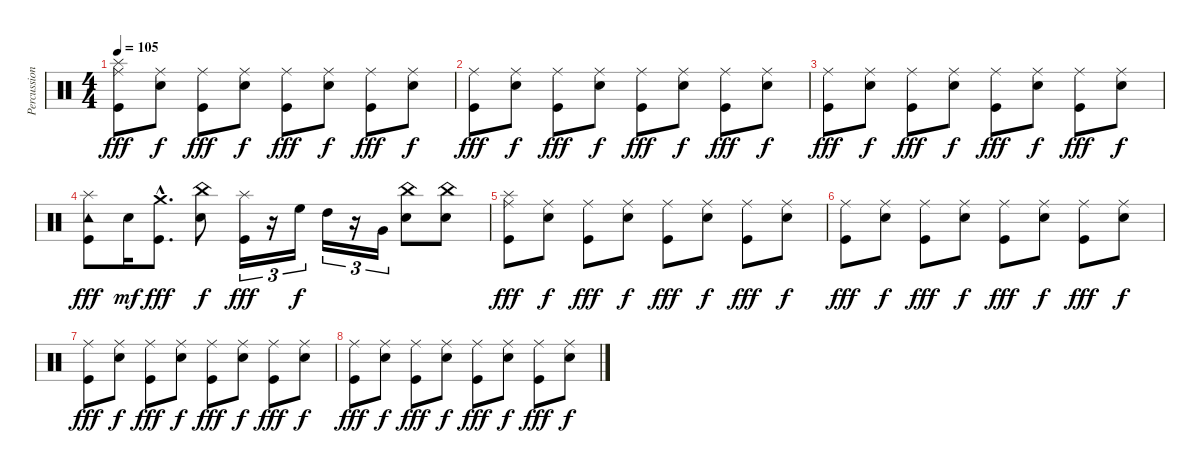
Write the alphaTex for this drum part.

\track ("Percussions" "Percussion") {instrument percussion}
\staff {score}
\articulation defaults
\ts (4 4)
\tempo 105
\clef neutral
\ks c
("Splash (hit)" "Ride (middle)" "Kick (hit)").8{dy fff} ("Ride (middle)" "Electric Snare (hit)").8{dy f} ("Ride (middle)" "Kick (hit)").8{dy fff} ("Ride (middle)" "Electric Snare (hit)").8{dy f} ("Ride (middle)" "Kick (hit)").8{dy fff} ("Ride (middle)" "Electric Snare (hit)").8{dy f} ("Ride (middle)" "Kick (hit)").8{dy fff} ("Ride (middle)" "Electric Snare (hit)").8{dy f} |
("Ride (middle)" "Kick (hit)").8{dy fff} ("Ride (middle)" "Electric Snare (hit)").8{dy f} ("Ride (middle)" "Kick (hit)").8{dy fff} ("Ride (middle)" "Electric Snare (hit)").8{dy f} ("Ride (middle)" "Kick (hit)").8{dy fff} ("Ride (middle)" "Electric Snare (hit)").8{dy f} ("Ride (middle)" "Kick (hit)").8{dy fff} ("Ride (middle)" "Electric Snare (hit)").8{dy f} |
("Ride (middle)" "Kick (hit)").8{dy fff} ("Ride (middle)" "Electric Snare (hit)").8{dy f} ("Ride (middle)" "Kick (hit)").8{dy fff} ("Ride (middle)" "Electric Snare (hit)").8{dy f} ("Ride (middle)" "Kick (hit)").8{dy fff} ("Ride (middle)" "Electric Snare (hit)").8{dy f} ("Ride (middle)" "Kick (hit)").8{dy fff} ("Ride (middle)" "Electric Snare (hit)").8{dy f} |
("Tambourine (hit)" "Splash (hit)" "Kick (hit)").8{dy fff} "Electric Snare (hit)".16{dy mf} ("Crash medium (hit)"{hac} "Kick (hit)"{hac}).8{d dy fff} ("China (hit)" "Electric Snare (hit)").8{dy f} ("Splash (hit)" "Kick (hit)").16{tu (3 2) dy fff} r.16{tu (3 2)} "High Floor Tom (hit)".16{tu (3 2) dy f} "High Tom (hit)".16{tu (3 2)} r.16{tu (3 2)} "Very Low Tom (hit)".16{tu (3 2)} ("China (hit)" "Electric Snare (hit)").8 ("China (hit)" "Electric Snare (hit)").8 |
("Splash (hit)" "Ride (middle)" "Kick (hit)").8{dy fff} ("Ride (middle)" "Electric Snare (hit)").8{dy f} ("Ride (middle)" "Kick (hit)").8{dy fff} ("Ride (middle)" "Electric Snare (hit)").8{dy f} ("Ride (middle)" "Kick (hit)").8{dy fff} ("Ride (middle)" "Electric Snare (hit)").8{dy f} ("Ride (middle)" "Kick (hit)").8{dy fff} ("Ride (middle)" "Electric Snare (hit)").8{dy f} |
("Ride (middle)" "Kick (hit)").8{dy fff} ("Ride (middle)" "Electric Snare (hit)").8{dy f} ("Ride (middle)" "Kick (hit)").8{dy fff} ("Ride (middle)" "Electric Snare (hit)").8{dy f} ("Ride (middle)" "Kick (hit)").8{dy fff} ("Ride (middle)" "Electric Snare (hit)").8{dy f} ("Ride (middle)" "Kick (hit)").8{dy fff} ("Ride (middle)" "Electric Snare (hit)").8{dy f} |
("Ride (middle)" "Kick (hit)").8{dy fff} ("Ride (middle)" "Electric Snare (hit)").8{dy f} ("Ride (middle)" "Kick (hit)").8{dy fff} ("Ride (middle)" "Electric Snare (hit)").8{dy f} ("Ride (middle)" "Kick (hit)").8{dy fff} ("Ride (middle)" "Electric Snare (hit)").8{dy f} ("Ride (middle)" "Kick (hit)").8{dy fff} ("Ride (middle)" "Electric Snare (hit)").8{dy f} |
("Ride (middle)" "Kick (hit)").8{dy fff} ("Ride (middle)" "Electric Snare (hit)").8{dy f} ("Ride (middle)" "Kick (hit)").8{dy fff} ("Ride (middle)" "Electric Snare (hit)").8{dy f} ("Ride (middle)" "Kick (hit)").8{dy fff} ("Ride (middle)" "Electric Snare (hit)").8{dy f} ("Ride (middle)" "Kick (hit)").8{dy fff} ("Ride (middle)" "Electric Snare (hit)").8{dy f}
